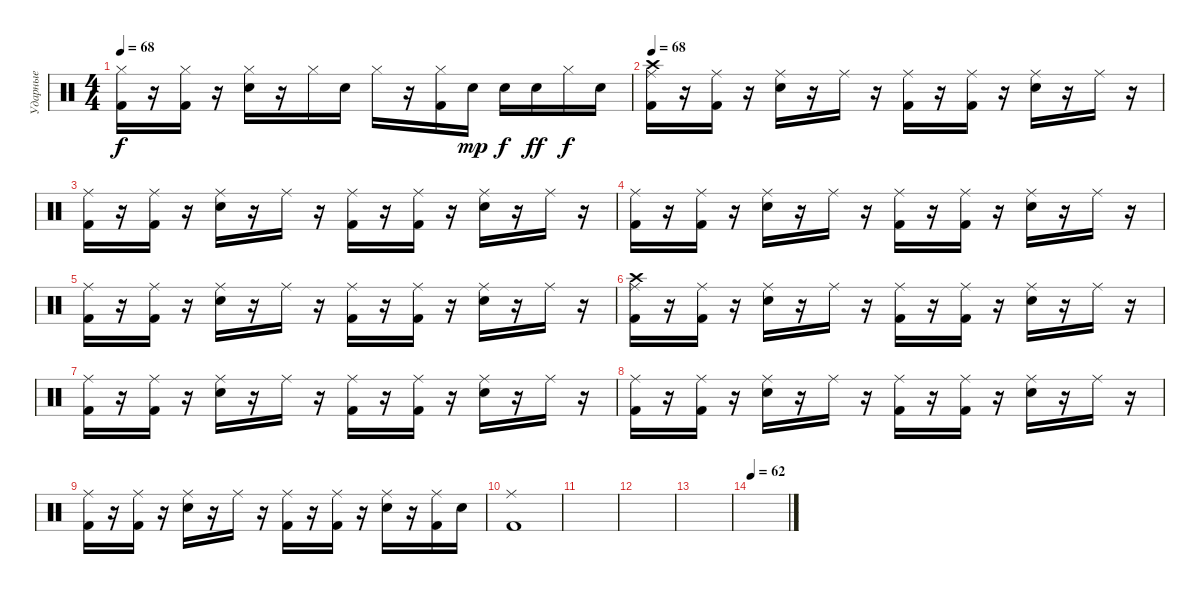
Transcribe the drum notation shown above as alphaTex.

\track ("Ударные" "Ударные") {instrument percussion}
\staff {score}
\articulation defaults
\ts (4 4)
\tempo 68
\clef neutral
\ks c
("Hi-Hat (closed)" "Kick (hit) 2").16{dy f} r.16 ("Hi-Hat (closed)" "Kick (hit) 2").16 r.16 ("Hi-Hat (closed)" "Electric Snare (hit)").16 r.16 "Hi-Hat (closed)".16 "Electric Snare (hit)".16 "Hi-Hat (closed)".16 r.16 ("Hi-Hat (closed)" "Kick (hit) 2").16 "Electric Snare (hit)".16{dy mp} "Electric Snare (hit)".16{dy f} "Electric Snare (hit)".16{dy ff} "Hi-Hat (closed)".16{dy f} "Electric Snare (hit)".16 |
\section ("" "")
\tempo 68
("Crash high (hit)" "Ride (middle)" "Kick (hit) 2").16 r.16 ("Ride (middle)" "Kick (hit) 2").16 r.16 ("Ride (middle)" "Electric Snare (hit)").16 r.16 "Ride (middle)".16 r.16 ("Ride (middle)" "Kick (hit) 2").16 r.16 ("Ride (middle)" "Kick (hit) 2").16 r.16 ("Ride (middle)" "Electric Snare (hit)").16 r.16 "Ride (middle)".16 r.16 |
("Ride (middle)" "Kick (hit) 2").16 r.16 ("Ride (middle)" "Kick (hit) 2").16 r.16 ("Ride (middle)" "Electric Snare (hit)").16 r.16 "Ride (middle)".16 r.16 ("Ride (middle)" "Kick (hit) 2").16 r.16 ("Ride (middle)" "Kick (hit) 2").16 r.16 ("Ride (middle)" "Electric Snare (hit)").16 r.16 "Ride (middle)".16 r.16 |
("Ride (middle)" "Kick (hit) 2").16 r.16 ("Ride (middle)" "Kick (hit) 2").16 r.16 ("Ride (middle)" "Electric Snare (hit)").16 r.16 "Ride (middle)".16 r.16 ("Ride (middle)" "Kick (hit) 2").16 r.16 ("Ride (middle)" "Kick (hit) 2").16 r.16 ("Ride (middle)" "Electric Snare (hit)").16 r.16 "Ride (middle)".16 r.16 |
("Ride (middle)" "Kick (hit) 2").16 r.16 ("Ride (middle)" "Kick (hit) 2").16 r.16 ("Ride (middle)" "Electric Snare (hit)").16 r.16 "Ride (middle)".16 r.16 ("Ride (middle)" "Kick (hit) 2").16 r.16 ("Ride (middle)" "Kick (hit) 2").16 r.16 ("Ride (middle)" "Electric Snare (hit)").16 r.16 "Ride (middle)".16 r.16 |
("Crash high (hit)" "Ride (middle)" "Kick (hit) 2").16 r.16 ("Ride (middle)" "Kick (hit) 2").16 r.16 ("Ride (middle)" "Electric Snare (hit)").16 r.16 "Ride (middle)".16 r.16 ("Ride (middle)" "Kick (hit) 2").16 r.16 ("Ride (middle)" "Kick (hit) 2").16 r.16 ("Ride (middle)" "Electric Snare (hit)").16 r.16 "Ride (middle)".16 r.16 |
("Ride (middle)" "Kick (hit) 2").16 r.16 ("Ride (middle)" "Kick (hit) 2").16 r.16 ("Ride (middle)" "Electric Snare (hit)").16 r.16 "Ride (middle)".16 r.16 ("Ride (middle)" "Kick (hit) 2").16 r.16 ("Ride (middle)" "Kick (hit) 2").16 r.16 ("Ride (middle)" "Electric Snare (hit)").16 r.16 "Ride (middle)".16 r.16 |
("Ride (middle)" "Kick (hit) 2").16 r.16 ("Ride (middle)" "Kick (hit) 2").16 r.16 ("Ride (middle)" "Electric Snare (hit)").16 r.16 "Ride (middle)".16 r.16 ("Ride (middle)" "Kick (hit) 2").16 r.16 ("Ride (middle)" "Kick (hit) 2").16 r.16 ("Ride (middle)" "Electric Snare (hit)").16 r.16 "Ride (middle)".16 r.16 |
("Ride (middle)" "Kick (hit) 2").16 r.16 ("Ride (middle)" "Kick (hit) 2").16 r.16 ("Ride (middle)" "Electric Snare (hit)").16 r.16 "Ride (middle)".16 r.16 ("Ride (middle)" "Kick (hit) 2").16 r.16 ("Ride (middle)" "Kick (hit) 2").16 r.16 ("Ride (middle)" "Electric Snare (hit)").16 r.16 ("Ride (middle)" "Kick (hit) 2").16 "Electric Snare (hit)".16 |
("Ride (middle)" "Kick (hit) 2").1 |
|
|
|
\tempo 62
